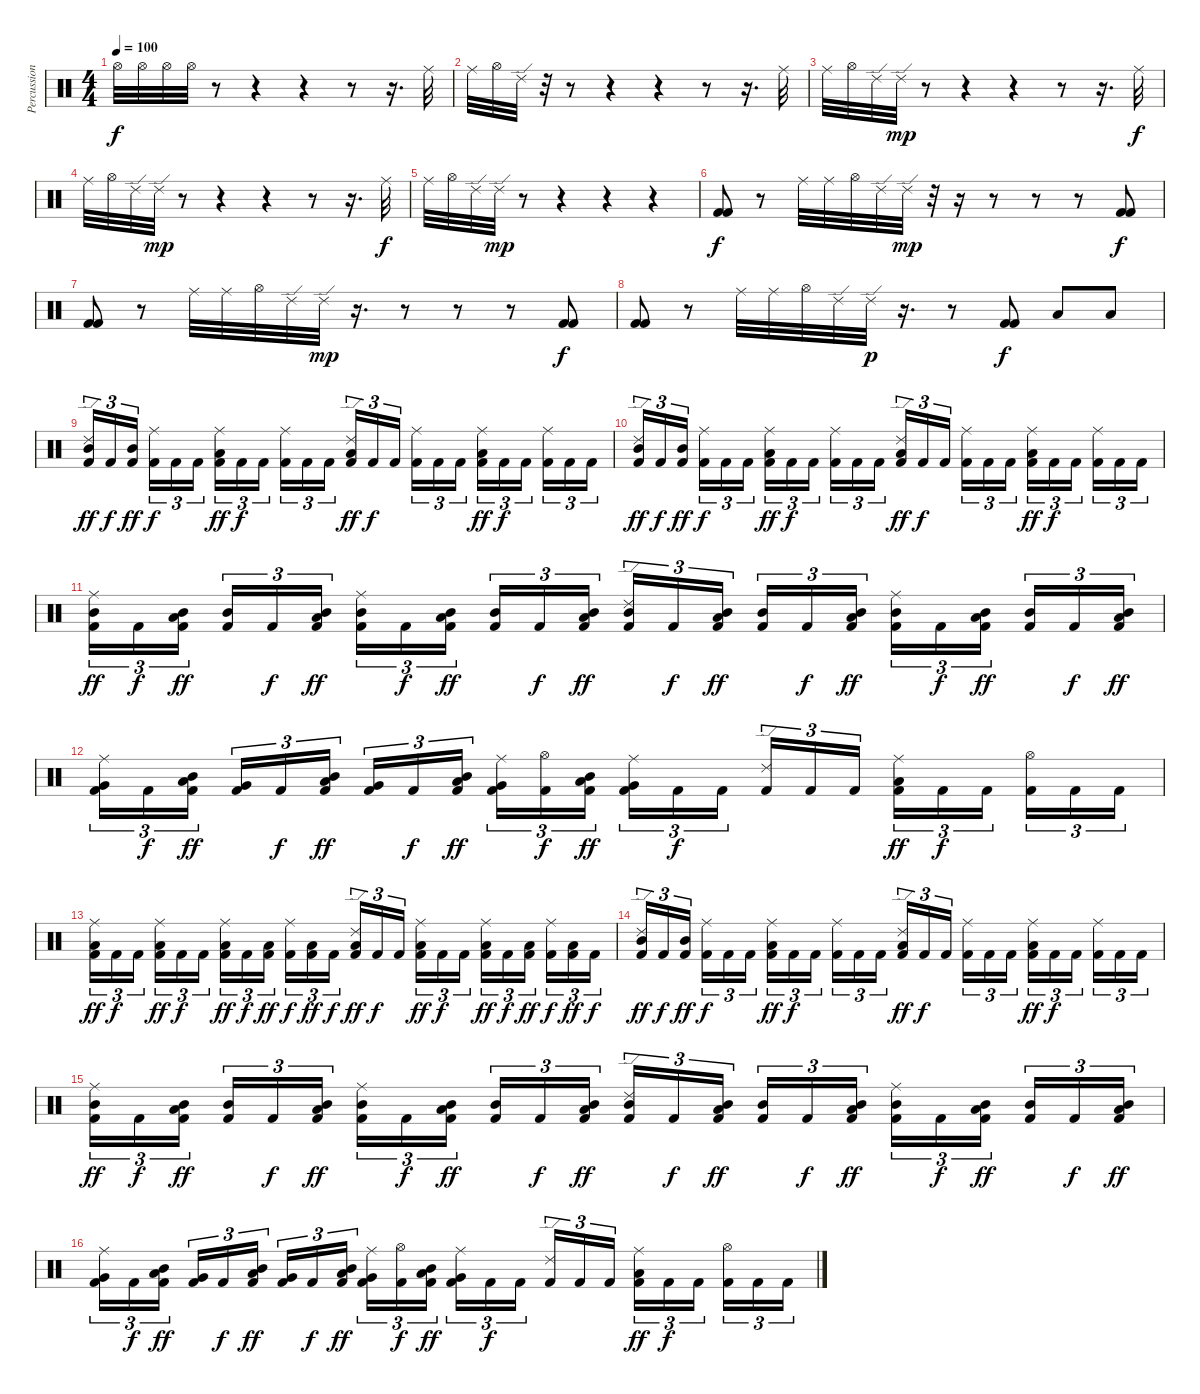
\track ("Percussion" "Percussion") {instrument percussion}
\staff {score}
\articulation defaults
\ts (4 4)
\tempo 100
\clef neutral
\ks c "Hi-Hat (open)".32{dy f} "Hi-Hat (open)".32 "Hi-Hat (open)".32 "Hi-Hat (open)".32
r.8 r.4 r.4 r.8 r.16{d} "Ride (middle)".32 |
"Ride (middle)".32 "Hi-Hat (open)".32 "Ride (edge) 2".32 r.32 r.8 r.4 r.4 r.8 r.16{d} "Ride (middle)".32 |
"Ride (middle)".32 "Hi-Hat (open)".32 "Ride (edge) 2".32 "Ride (edge) 2".32{dy mp} r.8 r.4 r.4 r.8 r.16{d} "Ride (middle)".32{dy f} |
"Ride (middle)".32 "Hi-Hat (open)".32 "Ride (edge) 2".32 "Ride (edge) 2".32{dy mp} r.8 r.4 r.4 r.8 r.16{d} "Ride (middle)".32{dy f} |
"Ride (middle)".32 "Hi-Hat (open)".32 "Ride (edge) 2".32 "Ride (edge) 2".32{dy mp} r.8 r.4 r.4 r.4 |
("Kick (hit) 2" "Kick (hit) 2").8{dy f} r.8 "Ride (middle)".32 "Ride (middle)".32 "Hi-Hat (open)".32 "Ride (edge) 2".32 "Ride (edge) 2".32{dy mp} r.32 r.16 r.8 r.8 r.8 ("Kick (hit) 2" "Kick (hit) 2").8{dy f} |
("Kick (hit) 2" "Kick (hit) 2").8 r.8 "Ride (middle)".32 "Ride (middle)".32 "Hi-Hat (open)".32 "Ride (edge) 2".32 "Ride (edge) 2".32{dy mp} r.16{d} r.8 r.8 r.8 ("Kick (hit) 2" "Kick (hit) 2").8{dy f} |
("Kick (hit) 2" "Kick (hit) 2").8 r.8 "Ride (middle)".32 "Ride (middle)".32 "Hi-Hat (open)".32 "Ride (edge) 2".32 "Ride (edge) 2".32{dy p} r.16{d} r.8 ("Kick (hit) 2" "Kick (hit) 2").8{dy f} "Low Tom (hit)".8 "Low Tom (hit)".8 |
("Ride (edge) 2" "Mid Tom (hit)" "Kick (hit) 2").16{tu (3 2) dy ff} "Kick (hit) 2".16{tu (3 2) dy f} ("Mid Tom (hit)" "Kick (hit) 2").16{tu (3 2) dy ff} ("Ride (middle)" "Kick (hit) 2").16{tu (3 2) dy f} "Kick (hit) 2".16{tu (3 2)} "Kick (hit) 2".16{tu (3 2)} ("Ride (middle)" "Low Tom (hit)" "Kick (hit) 2").16{tu (3 2) dy ff} "Kick (hit) 2".16{tu (3 2) dy f} "Kick (hit) 2".16{tu (3 2)} ("Ride (middle)" "Kick (hit) 2").16{tu (3 2)} "Kick (hit) 2".16{tu (3 2)} "Kick (hit) 2".16{tu (3 2)} ("Ride (edge) 2" "Low Tom (hit)" "Kick (hit) 2").16{tu (3 2) dy ff} "Kick (hit) 2".16{tu (3 2) dy f} "Kick (hit) 2".16{tu (3 2)} ("Ride (middle)" "Kick (hit) 2").16{tu (3 2)} "Kick (hit) 2".16{tu (3 2)} "Kick (hit) 2".16{tu (3 2)} ("Ride (middle)" "Low Tom (hit)" "Kick (hit) 2").16{tu (3 2) dy ff} "Kick (hit) 2".16{tu (3 2) dy f} "Kick (hit) 2".16{tu (3 2)} ("Ride (middle)" "Kick (hit) 2").16{tu (3 2)} "Kick (hit) 2".16{tu (3 2)} "Kick (hit) 2".16{tu (3 2)} |
("Ride (edge) 2" "Mid Tom (hit)" "Kick (hit) 2").16{tu (3 2) dy ff} "Kick (hit) 2".16{tu (3 2) dy f} ("Mid Tom (hit)" "Kick (hit) 2").16{tu (3 2) dy ff} ("Ride (middle)" "Kick (hit) 2").16{tu (3 2) dy f} "Kick (hit) 2".16{tu (3 2)} "Kick (hit) 2".16{tu (3 2)} ("Ride (middle)" "Low Tom (hit)" "Kick (hit) 2").16{tu (3 2) dy ff} "Kick (hit) 2".16{tu (3 2) dy f} "Kick (hit) 2".16{tu (3 2)} ("Ride (middle)" "Kick (hit) 2").16{tu (3 2)} "Kick (hit) 2".16{tu (3 2)} "Kick (hit) 2".16{tu (3 2)} ("Ride (edge) 2" "Low Tom (hit)" "Kick (hit) 2").16{tu (3 2) dy ff} "Kick (hit) 2".16{tu (3 2) dy f} "Kick (hit) 2".16{tu (3 2)} ("Ride (middle)" "Kick (hit) 2").16{tu (3 2)} "Kick (hit) 2".16{tu (3 2)} "Kick (hit) 2".16{tu (3 2)} ("Ride (middle)" "Low Tom (hit)" "Kick (hit) 2").16{tu (3 2) dy ff} "Kick (hit) 2".16{tu (3 2) dy f} "Kick (hit) 2".16{tu (3 2)} ("Ride (middle)" "Kick (hit) 2").16{tu (3 2)} "Kick (hit) 2".16{tu (3 2)} "Kick (hit) 2".16{tu (3 2)} |
("Ride (middle)" "Mid Tom (hit)" "Kick (hit) 2").16{tu (3 2) dy ff} "Kick (hit) 2".16{tu (3 2) dy f} ("Mid Tom (hit)" "Low Tom (hit)" "Kick (hit) 2").16{tu (3 2) dy ff} ("Mid Tom (hit)" "Kick (hit) 2").16{tu (3 2)} "Kick (hit) 2".16{tu (3 2) dy f} ("Mid Tom (hit)" "Low Tom (hit)" "Kick (hit) 2").16{tu (3 2) dy ff} ("Ride (middle)" "Mid Tom (hit)" "Kick (hit) 2").16{tu (3 2)} "Kick (hit) 2".16{tu (3 2) dy f} ("Mid Tom (hit)" "Low Tom (hit)" "Kick (hit) 2").16{tu (3 2) dy ff} ("Mid Tom (hit)" "Kick (hit) 2").16{tu (3 2)} "Kick (hit) 2".16{tu (3 2) dy f} ("Mid Tom (hit)" "Low Tom (hit)" "Kick (hit) 2").16{tu (3 2) dy ff} ("Ride (edge) 2" "Mid Tom (hit)" "Kick (hit) 2").16{tu (3 2)} "Kick (hit) 2".16{tu (3 2) dy f} ("Mid Tom (hit)" "Low Tom (hit)" "Kick (hit) 2").16{tu (3 2) dy ff} ("Mid Tom (hit)" "Kick (hit) 2").16{tu (3 2)} "Kick (hit) 2".16{tu (3 2) dy f} ("Mid Tom (hit)" "Low Tom (hit)" "Kick (hit) 2").16{tu (3 2) dy ff} ("Ride (middle)" "Mid Tom (hit)" "Kick (hit) 2").16{tu (3 2)} "Kick (hit) 2".16{tu (3 2) dy f} ("Mid Tom (hit)" "Low Tom (hit)" "Kick (hit) 2").16{tu (3 2) dy ff} ("Mid Tom (hit)" "Kick (hit) 2").16{tu (3 2)} "Kick (hit) 2".16{tu (3 2) dy f} ("Mid Tom (hit)" "Low Tom (hit)" "Kick (hit) 2").16{tu (3 2) dy ff} |
("Ride (middle)" "Very Low Tom (hit)" "Kick (hit) 2").16{tu (3 2)} "Kick (hit) 2".16{tu (3 2) dy f} ("Mid Tom (hit)" "Low Tom (hit)" "Kick (hit) 2").16{tu (3 2) dy ff} ("Very Low Tom (hit)" "Kick (hit) 2").16{tu (3 2)} "Kick (hit) 2".16{tu (3 2) dy f} ("Mid Tom (hit)" "Low Tom (hit)" "Kick (hit) 2").16{tu (3 2) dy ff} ("Very Low Tom (hit)" "Kick (hit) 2").16{tu (3 2)} "Kick (hit) 2".16{tu (3 2) dy f} ("Mid Tom (hit)" "Low Tom (hit)" "Kick (hit) 2").16{tu (3 2) dy ff} ("Ride (middle)" "Very Low Tom (hit)" "Kick (hit) 2").16{tu (3 2)} ("Hi-Hat (open)" "Kick (hit) 2").16{tu (3 2) dy f} ("Mid Tom (hit)" "Low Tom (hit)" "Kick (hit) 2").16{tu (3 2) dy ff} ("Ride (middle)" "Very Low Tom (hit)" "Kick (hit) 2").16{tu (3 2)} "Kick (hit) 2".16{tu (3 2) dy f} "Kick (hit) 2".16{tu (3 2)} ("Ride (edge) 2" "Kick (hit) 2").16{tu (3 2)} "Kick (hit) 2".16{tu (3 2)} "Kick (hit) 2".16{tu (3 2)} ("Ride (middle)" "Low Tom (hit)" "Kick (hit) 2").16{tu (3 2) dy ff} "Kick (hit) 2".16{tu (3 2) dy f} "Kick (hit) 2".16{tu (3 2)} ("Hi-Hat (open)" "Kick (hit) 2").16{tu (3 2)} "Kick (hit) 2".16{tu (3 2)} "Kick (hit) 2".16{tu (3 2)} |
("Ride (middle)" "Low Tom (hit)" "Kick (hit) 2").16{tu (3 2) dy ff} "Kick (hit) 2".16{tu (3 2) dy f} "Kick (hit) 2".16{tu (3 2)} ("Ride (middle)" "Low Tom (hit)" "Kick (hit) 2").16{tu (3 2) dy ff} "Kick (hit) 2".16{tu (3 2) dy f} "Kick (hit) 2".16{tu (3 2)} ("Ride (middle)" "Low Tom (hit)" "Kick (hit) 2").16{tu (3 2) dy ff} "Kick (hit) 2".16{tu (3 2) dy f} ("Low Tom (hit)" "Kick (hit) 2").16{tu (3 2) dy ff} ("Ride (middle)" "Kick (hit) 2").16{tu (3 2) dy f} ("Low Tom (hit)" "Kick (hit) 2").16{tu (3 2) dy ff} "Kick (hit) 2".16{tu (3 2) dy f} ("Ride (edge) 2" "Low Tom (hit)" "Kick (hit) 2").16{tu (3 2) dy ff} "Kick (hit) 2".16{tu (3 2) dy f} "Kick (hit) 2".16{tu (3 2)} ("Ride (middle)" "Low Tom (hit)" "Kick (hit) 2").16{tu (3 2) dy ff} "Kick (hit) 2".16{tu (3 2) dy f} "Kick (hit) 2".16{tu (3 2)} ("Ride (middle)" "Low Tom (hit)" "Kick (hit) 2").16{tu (3 2) dy ff} "Kick (hit) 2".16{tu (3 2) dy f} ("Low Tom (hit)" "Kick (hit) 2").16{tu (3 2) dy ff} ("Ride (middle)" "Kick (hit) 2").16{tu (3 2) dy f} ("Low Tom (hit)" "Kick (hit) 2").16{tu (3 2) dy ff} "Kick (hit) 2".16{tu (3 2) dy f} |
("Ride (edge) 2" "Mid Tom (hit)" "Kick (hit) 2").16{tu (3 2) dy ff} "Kick (hit) 2".16{tu (3 2) dy f} ("Mid Tom (hit)" "Kick (hit) 2").16{tu (3 2) dy ff} ("Ride (middle)" "Kick (hit) 2").16{tu (3 2) dy f} "Kick (hit) 2".16{tu (3 2)} "Kick (hit) 2".16{tu (3 2)} ("Ride (middle)" "Low Tom (hit)" "Kick (hit) 2").16{tu (3 2) dy ff} "Kick (hit) 2".16{tu (3 2) dy f} "Kick (hit) 2".16{tu (3 2)} ("Ride (middle)" "Kick (hit) 2").16{tu (3 2)} "Kick (hit) 2".16{tu (3 2)} "Kick (hit) 2".16{tu (3 2)} ("Ride (edge) 2" "Low Tom (hit)" "Kick (hit) 2").16{tu (3 2) dy ff} "Kick (hit) 2".16{tu (3 2) dy f} "Kick (hit) 2".16{tu (3 2)} ("Ride (middle)" "Kick (hit) 2").16{tu (3 2)} "Kick (hit) 2".16{tu (3 2)} "Kick (hit) 2".16{tu (3 2)} ("Ride (middle)" "Low Tom (hit)" "Kick (hit) 2").16{tu (3 2) dy ff} "Kick (hit) 2".16{tu (3 2) dy f} "Kick (hit) 2".16{tu (3 2)} ("Ride (middle)" "Kick (hit) 2").16{tu (3 2)} "Kick (hit) 2".16{tu (3 2)} "Kick (hit) 2".16{tu (3 2)} |
("Ride (middle)" "Mid Tom (hit)" "Kick (hit) 2").16{tu (3 2) dy ff} "Kick (hit) 2".16{tu (3 2) dy f} ("Mid Tom (hit)" "Low Tom (hit)" "Kick (hit) 2").16{tu (3 2) dy ff} ("Mid Tom (hit)" "Kick (hit) 2").16{tu (3 2)} "Kick (hit) 2".16{tu (3 2) dy f} ("Mid Tom (hit)" "Low Tom (hit)" "Kick (hit) 2").16{tu (3 2) dy ff} ("Ride (middle)" "Mid Tom (hit)" "Kick (hit) 2").16{tu (3 2)} "Kick (hit) 2".16{tu (3 2) dy f} ("Mid Tom (hit)" "Low Tom (hit)" "Kick (hit) 2").16{tu (3 2) dy ff} ("Mid Tom (hit)" "Kick (hit) 2").16{tu (3 2)} "Kick (hit) 2".16{tu (3 2) dy f} ("Mid Tom (hit)" "Low Tom (hit)" "Kick (hit) 2").16{tu (3 2) dy ff} ("Ride (edge) 2" "Mid Tom (hit)" "Kick (hit) 2").16{tu (3 2)} "Kick (hit) 2".16{tu (3 2) dy f} ("Mid Tom (hit)" "Low Tom (hit)" "Kick (hit) 2").16{tu (3 2) dy ff} ("Mid Tom (hit)" "Kick (hit) 2").16{tu (3 2)} "Kick (hit) 2".16{tu (3 2) dy f} ("Mid Tom (hit)" "Low Tom (hit)" "Kick (hit) 2").16{tu (3 2) dy ff} ("Ride (middle)" "Mid Tom (hit)" "Kick (hit) 2").16{tu (3 2)} "Kick (hit) 2".16{tu (3 2) dy f} ("Mid Tom (hit)" "Low Tom (hit)" "Kick (hit) 2").16{tu (3 2) dy ff} ("Mid Tom (hit)" "Kick (hit) 2").16{tu (3 2)} "Kick (hit) 2".16{tu (3 2) dy f} ("Mid Tom (hit)" "Low Tom (hit)" "Kick (hit) 2").16{tu (3 2) dy ff} |
("Ride (middle)" "Very Low Tom (hit)" "Kick (hit) 2").16{tu (3 2)} "Kick (hit) 2".16{tu (3 2) dy f} ("Mid Tom (hit)" "Low Tom (hit)" "Kick (hit) 2").16{tu (3 2) dy ff} ("Very Low Tom (hit)" "Kick (hit) 2").16{tu (3 2)} "Kick (hit) 2".16{tu (3 2) dy f} ("Mid Tom (hit)" "Low Tom (hit)" "Kick (hit) 2").16{tu (3 2) dy ff} ("Very Low Tom (hit)" "Kick (hit) 2").16{tu (3 2)} "Kick (hit) 2".16{tu (3 2) dy f} ("Mid Tom (hit)" "Low Tom (hit)" "Kick (hit) 2").16{tu (3 2) dy ff} ("Ride (middle)" "Very Low Tom (hit)" "Kick (hit) 2").16{tu (3 2)} ("Hi-Hat (open)" "Kick (hit) 2").16{tu (3 2) dy f} ("Mid Tom (hit)" "Low Tom (hit)" "Kick (hit) 2").16{tu (3 2) dy ff} ("Ride (middle)" "Very Low Tom (hit)" "Kick (hit) 2").16{tu (3 2)} "Kick (hit) 2".16{tu (3 2) dy f} "Kick (hit) 2".16{tu (3 2)} ("Ride (edge) 2" "Kick (hit) 2").16{tu (3 2)} "Kick (hit) 2".16{tu (3 2)} "Kick (hit) 2".16{tu (3 2)} ("Ride (middle)" "Low Tom (hit)" "Kick (hit) 2").16{tu (3 2) dy ff} "Kick (hit) 2".16{tu (3 2) dy f} "Kick (hit) 2".16{tu (3 2)} ("Hi-Hat (open)" "Kick (hit) 2").16{tu (3 2)} "Kick (hit) 2".16{tu (3 2)} "Kick (hit) 2".16{tu (3 2)}
